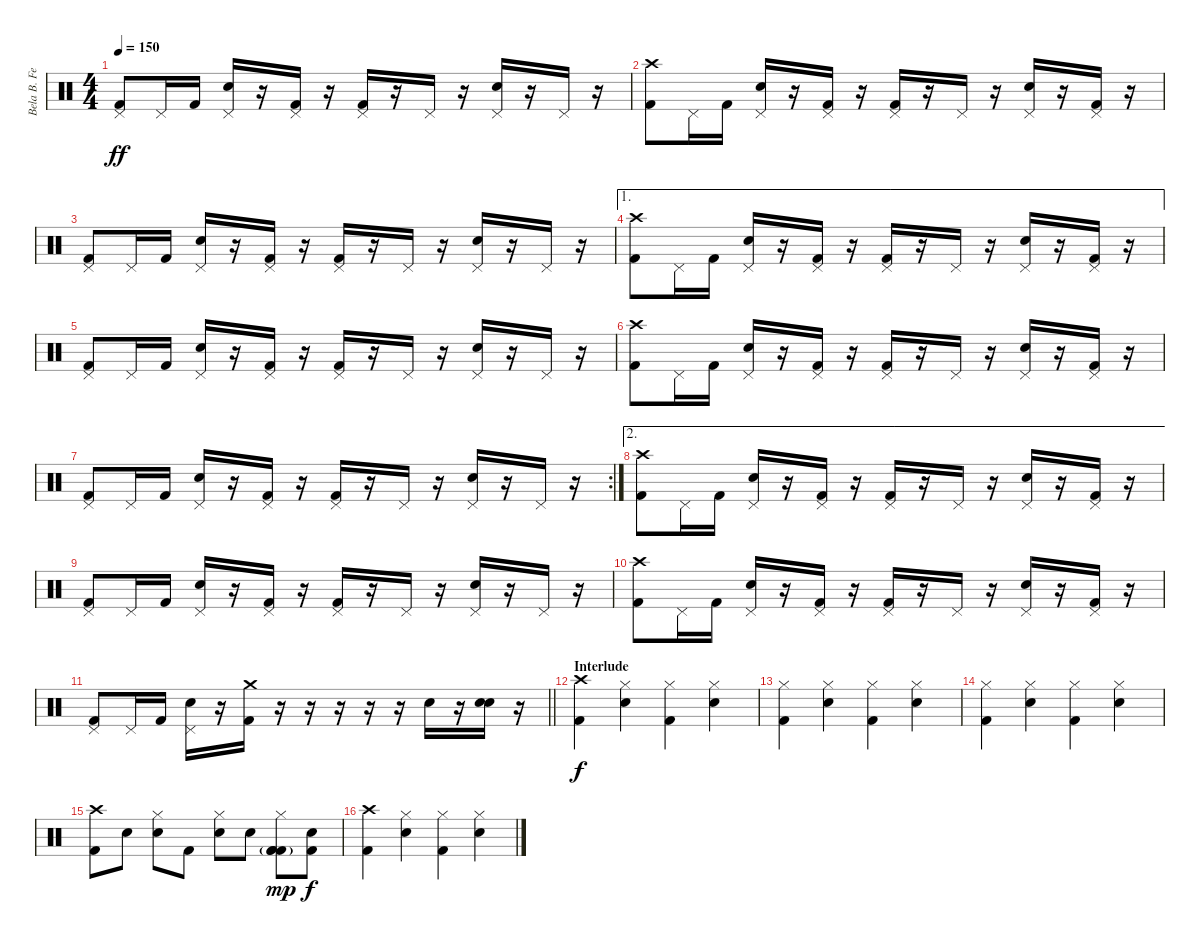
\track ("Bela B. Felsenheimer" "Bela B. Fe") {instrument percussion}
\staff {score}
\articulation defaults
\ts (4 4)
\tempo 150
\clef neutral
\ks c
("Pedal Hi-Hat (hit)" "Kick (hit) 2").8{dy ff} "Pedal Hi-Hat (hit)".16 "Kick (hit) 2".16 ("Pedal Hi-Hat (hit)" "Snare (hit) 2").16 r.16 ("Pedal Hi-Hat (hit)" "Kick (hit) 2").16 r.16 ("Pedal Hi-Hat (hit)" "Kick (hit) 2").16 r.16 "Pedal Hi-Hat (hit)".16 r.16 ("Pedal Hi-Hat (hit)" "Snare (hit) 2").16 r.16 "Pedal Hi-Hat (hit)".16 r.16 |
("Crash high (hit)" "Kick (hit) 2").8 "Pedal Hi-Hat (hit)".16 "Kick (hit) 2".16 ("Pedal Hi-Hat (hit)" "Snare (hit) 2").16 r.16 ("Pedal Hi-Hat (hit)" "Kick (hit) 2").16 r.16 ("Pedal Hi-Hat (hit)" "Kick (hit) 2").16 r.16 "Pedal Hi-Hat (hit)".16 r.16 ("Pedal Hi-Hat (hit)" "Snare (hit) 2").16 r.16 ("Pedal Hi-Hat (hit)" "Kick (hit) 2").16 r.16 |
("Pedal Hi-Hat (hit)" "Kick (hit) 2").8 "Pedal Hi-Hat (hit)".16 "Kick (hit) 2".16 ("Pedal Hi-Hat (hit)" "Snare (hit) 2").16 r.16 ("Pedal Hi-Hat (hit)" "Kick (hit) 2").16 r.16 ("Pedal Hi-Hat (hit)" "Kick (hit) 2").16 r.16 "Pedal Hi-Hat (hit)".16 r.16 ("Pedal Hi-Hat (hit)" "Snare (hit) 2").16 r.16 "Pedal Hi-Hat (hit)".16 r.16 |
\ae 1
("Crash high (hit)" "Kick (hit) 2").8 "Pedal Hi-Hat (hit)".16 "Kick (hit) 2".16 ("Pedal Hi-Hat (hit)" "Snare (hit) 2").16 r.16 ("Pedal Hi-Hat (hit)" "Kick (hit) 2").16 r.16 ("Pedal Hi-Hat (hit)" "Kick (hit) 2").16 r.16 "Pedal Hi-Hat (hit)".16 r.16 ("Pedal Hi-Hat (hit)" "Snare (hit) 2").16 r.16 ("Pedal Hi-Hat (hit)" "Kick (hit) 2").16 r.16 |
("Pedal Hi-Hat (hit)" "Kick (hit) 2").8 "Pedal Hi-Hat (hit)".16 "Kick (hit) 2".16 ("Pedal Hi-Hat (hit)" "Snare (hit) 2").16 r.16 ("Pedal Hi-Hat (hit)" "Kick (hit) 2").16 r.16 ("Pedal Hi-Hat (hit)" "Kick (hit) 2").16 r.16 "Pedal Hi-Hat (hit)".16 r.16 ("Pedal Hi-Hat (hit)" "Snare (hit) 2").16 r.16 "Pedal Hi-Hat (hit)".16 r.16 |
("Crash high (hit)" "Kick (hit) 2").8 "Pedal Hi-Hat (hit)".16 "Kick (hit) 2".16 ("Pedal Hi-Hat (hit)" "Snare (hit) 2").16 r.16 ("Pedal Hi-Hat (hit)" "Kick (hit) 2").16 r.16 ("Pedal Hi-Hat (hit)" "Kick (hit) 2").16 r.16 "Pedal Hi-Hat (hit)".16 r.16 ("Pedal Hi-Hat (hit)" "Snare (hit) 2").16 r.16 ("Pedal Hi-Hat (hit)" "Kick (hit) 2").16 r.16 |
\rc 2
("Pedal Hi-Hat (hit)" "Kick (hit) 2").8 "Pedal Hi-Hat (hit)".16 "Kick (hit) 2".16 ("Pedal Hi-Hat (hit)" "Snare (hit) 2").16 r.16 ("Pedal Hi-Hat (hit)" "Kick (hit) 2").16 r.16 ("Pedal Hi-Hat (hit)" "Kick (hit) 2").16 r.16 "Pedal Hi-Hat (hit)".16 r.16 ("Pedal Hi-Hat (hit)" "Snare (hit) 2").16 r.16 "Pedal Hi-Hat (hit)".16 r.16 |
\ae 2
("Crash high (hit)" "Kick (hit) 2").8 "Pedal Hi-Hat (hit)".16 "Kick (hit) 2".16 ("Pedal Hi-Hat (hit)" "Snare (hit) 2").16 r.16 ("Pedal Hi-Hat (hit)" "Kick (hit) 2").16 r.16 ("Pedal Hi-Hat (hit)" "Kick (hit) 2").16 r.16 "Pedal Hi-Hat (hit)".16 r.16 ("Pedal Hi-Hat (hit)" "Snare (hit) 2").16 r.16 ("Pedal Hi-Hat (hit)" "Kick (hit) 2").16 r.16 |
("Pedal Hi-Hat (hit)" "Kick (hit) 2").8 "Pedal Hi-Hat (hit)".16 "Kick (hit) 2".16 ("Pedal Hi-Hat (hit)" "Snare (hit) 2").16 r.16 ("Pedal Hi-Hat (hit)" "Kick (hit) 2").16 r.16 ("Pedal Hi-Hat (hit)" "Kick (hit) 2").16 r.16 "Pedal Hi-Hat (hit)".16 r.16 ("Pedal Hi-Hat (hit)" "Snare (hit) 2").16 r.16 "Pedal Hi-Hat (hit)".16 r.16 |
("Crash high (hit)" "Kick (hit) 2").8 "Pedal Hi-Hat (hit)".16 "Kick (hit) 2".16 ("Pedal Hi-Hat (hit)" "Snare (hit) 2").16 r.16 ("Pedal Hi-Hat (hit)" "Kick (hit) 2").16 r.16 ("Pedal Hi-Hat (hit)" "Kick (hit) 2").16 r.16 "Pedal Hi-Hat (hit)".16 r.16 ("Pedal Hi-Hat (hit)" "Snare (hit) 2").16 r.16 ("Pedal Hi-Hat (hit)" "Kick (hit) 2").16 r.16 |
\barLineRight lightlight
("Pedal Hi-Hat (hit)" "Kick (hit) 2").8 "Pedal Hi-Hat (hit)".16 "Kick (hit) 2".16 ("Pedal Hi-Hat (hit)" "Snare (hit) 2").16 r.16 ("Crash medium (hit)" "Kick (hit) 2").16 r.16 r.16 r.16 r.16 r.16 "Snare (hit) 2".16 r.16 ("Snare (hit) 2" "Electric Snare (hit)").16 r.16 |
\section ("" "Interlude")
("Kick (hit) 2" "Crash high (hit)").4{dy f} ("Snare (hit) 2" "Hi-Hat (closed)").4 ("Kick (hit) 2" "Hi-Hat (closed)").4 ("Snare (hit) 2" "Hi-Hat (closed)").4 |
("Kick (hit) 2" "Hi-Hat (closed)").4 ("Snare (hit) 2" "Hi-Hat (closed)").4 ("Kick (hit) 2" "Hi-Hat (closed)").4 ("Snare (hit) 2" "Hi-Hat (closed)").4 |
("Kick (hit) 2" "Hi-Hat (closed)").4 ("Snare (hit) 2" "Hi-Hat (closed)").4 ("Kick (hit) 2" "Hi-Hat (closed)").4 ("Snare (hit) 2" "Hi-Hat (closed)").4 |
("Crash high (hit)" "Kick (hit) 2").8 "Snare (hit) 2".8 ("Hi-Hat (closed)" "Snare (hit) 2").8 "Kick (hit) 2".8 ("Hi-Hat (closed)" "Snare (hit) 2").8 "Snare (hit) 2".8 ("Hi-Hat (closed)" "Kick (hit) 2"{g} "Kick (hit) 2"{g} "Kick (hit) 2"{g}).8{dy mp} ("Snare (hit) 2" "Kick (hit) 2").8{dy f} |
("Kick (hit) 2" "Crash high (hit)").4 ("Snare (hit) 2" "Hi-Hat (closed)").4 ("Kick (hit) 2" "Hi-Hat (closed)").4 ("Snare (hit) 2" "Hi-Hat (closed)").4
